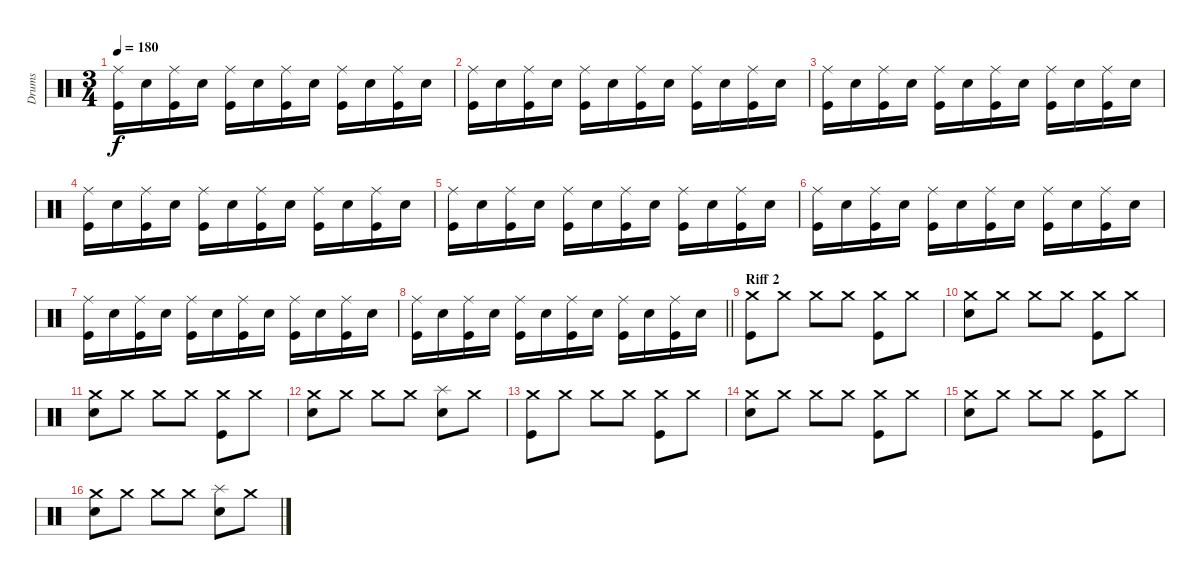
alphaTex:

\track ("Drums" "Drums") {instrument percussion}
\staff {score}
\articulation defaults
\ts (3 4)
\tempo 180
\clef neutral
\ks c
("Ride (middle)" "Kick (hit)").16{dy f} "Electric Snare (hit)".16 ("Ride (middle)" "Kick (hit)").16 "Electric Snare (hit)".16 ("Ride (middle)" "Kick (hit)").16 "Electric Snare (hit)".16 ("Ride (middle)" "Kick (hit)").16 "Electric Snare (hit)".16 ("Ride (middle)" "Kick (hit)").16 "Electric Snare (hit)".16 ("Ride (middle)" "Kick (hit)").16 "Electric Snare (hit)".16 |
("Ride (middle)" "Kick (hit)").16 "Electric Snare (hit)".16 ("Ride (middle)" "Kick (hit)").16 "Electric Snare (hit)".16 ("Ride (middle)" "Kick (hit)").16 "Electric Snare (hit)".16 ("Ride (middle)" "Kick (hit)").16 "Electric Snare (hit)".16 ("Ride (middle)" "Kick (hit)").16 "Electric Snare (hit)".16 ("Ride (middle)" "Kick (hit)").16 "Electric Snare (hit)".16 |
("Ride (middle)" "Kick (hit)").16 "Electric Snare (hit)".16 ("Ride (middle)" "Kick (hit)").16 "Electric Snare (hit)".16 ("Ride (middle)" "Kick (hit)").16 "Electric Snare (hit)".16 ("Ride (middle)" "Kick (hit)").16 "Electric Snare (hit)".16 ("Ride (middle)" "Kick (hit)").16 "Electric Snare (hit)".16 ("Ride (middle)" "Kick (hit)").16 "Electric Snare (hit)".16 |
("Ride (middle)" "Kick (hit)").16 "Electric Snare (hit)".16 ("Ride (middle)" "Kick (hit)").16 "Electric Snare (hit)".16 ("Ride (middle)" "Kick (hit)").16 "Electric Snare (hit)".16 ("Ride (middle)" "Kick (hit)").16 "Electric Snare (hit)".16 ("Ride (middle)" "Kick (hit)").16 "Electric Snare (hit)".16 ("Ride (middle)" "Kick (hit)").16 "Electric Snare (hit)".16 |
("Ride (middle)" "Kick (hit)").16 "Electric Snare (hit)".16 ("Ride (middle)" "Kick (hit)").16 "Electric Snare (hit)".16 ("Ride (middle)" "Kick (hit)").16 "Electric Snare (hit)".16 ("Ride (middle)" "Kick (hit)").16 "Electric Snare (hit)".16 ("Ride (middle)" "Kick (hit)").16 "Electric Snare (hit)".16 ("Ride (middle)" "Kick (hit)").16 "Electric Snare (hit)".16 |
("Ride (middle)" "Kick (hit)").16 "Electric Snare (hit)".16 ("Ride (middle)" "Kick (hit)").16 "Electric Snare (hit)".16 ("Ride (middle)" "Kick (hit)").16 "Electric Snare (hit)".16 ("Ride (middle)" "Kick (hit)").16 "Electric Snare (hit)".16 ("Ride (middle)" "Kick (hit)").16 "Electric Snare (hit)".16 ("Ride (middle)" "Kick (hit)").16 "Electric Snare (hit)".16 |
("Ride (middle)" "Kick (hit)").16 "Electric Snare (hit)".16 ("Ride (middle)" "Kick (hit)").16 "Electric Snare (hit)".16 ("Ride (middle)" "Kick (hit)").16 "Electric Snare (hit)".16 ("Ride (middle)" "Kick (hit)").16 "Electric Snare (hit)".16 ("Ride (middle)" "Kick (hit)").16 "Electric Snare (hit)".16 ("Ride (middle)" "Kick (hit)").16 "Electric Snare (hit)".16 |
\barLineRight lightlight
("Ride (middle)" "Kick (hit)").16 "Electric Snare (hit)".16 ("Ride (middle)" "Kick (hit)").16 "Electric Snare (hit)".16 ("Ride (middle)" "Kick (hit)").16 "Electric Snare (hit)".16 ("Ride (middle)" "Kick (hit)").16 "Electric Snare (hit)".16 ("Ride (middle)" "Kick (hit)").16 "Electric Snare (hit)".16 ("Ride (middle)" "Kick (hit)").16 "Electric Snare (hit)".16 |
\section ("" "Riff 2")
("Crash medium (hit)" "Kick (hit)").8 "Crash medium (hit)".8 "Crash medium (hit)".8 "Crash medium (hit)".8 ("Crash medium (hit)" "Kick (hit)").8 "Crash medium (hit)".8 |
("Crash medium (hit)" "Electric Snare (hit)").8 "Crash medium (hit)".8 "Crash medium (hit)".8 "Crash medium (hit)".8 ("Crash medium (hit)" "Kick (hit)").8 "Crash medium (hit)".8 |
("Crash medium (hit)" "Electric Snare (hit)").8 "Crash medium (hit)".8 "Crash medium (hit)".8 "Crash medium (hit)".8 ("Crash medium (hit)" "Kick (hit)").8 "Crash medium (hit)".8 |
("Crash medium (hit)" "Electric Snare (hit)").8 "Crash medium (hit)".8 "Crash medium (hit)".8 "Crash medium (hit)".8 ("Splash (hit)" "Electric Snare (hit)").8 "Crash medium (hit)".8 |
("Crash medium (hit)" "Kick (hit)").8 "Crash medium (hit)".8 "Crash medium (hit)".8 "Crash medium (hit)".8 ("Crash medium (hit)" "Kick (hit)").8 "Crash medium (hit)".8 |
("Crash medium (hit)" "Electric Snare (hit)").8 "Crash medium (hit)".8 "Crash medium (hit)".8 "Crash medium (hit)".8 ("Crash medium (hit)" "Kick (hit)").8 "Crash medium (hit)".8 |
("Crash medium (hit)" "Electric Snare (hit)").8 "Crash medium (hit)".8 "Crash medium (hit)".8 "Crash medium (hit)".8 ("Crash medium (hit)" "Kick (hit)").8 "Crash medium (hit)".8 |
("Crash medium (hit)" "Electric Snare (hit)").8 "Crash medium (hit)".8 "Crash medium (hit)".8 "Crash medium (hit)".8 ("Splash (hit)" "Electric Snare (hit)").8 "Crash medium (hit)".8
